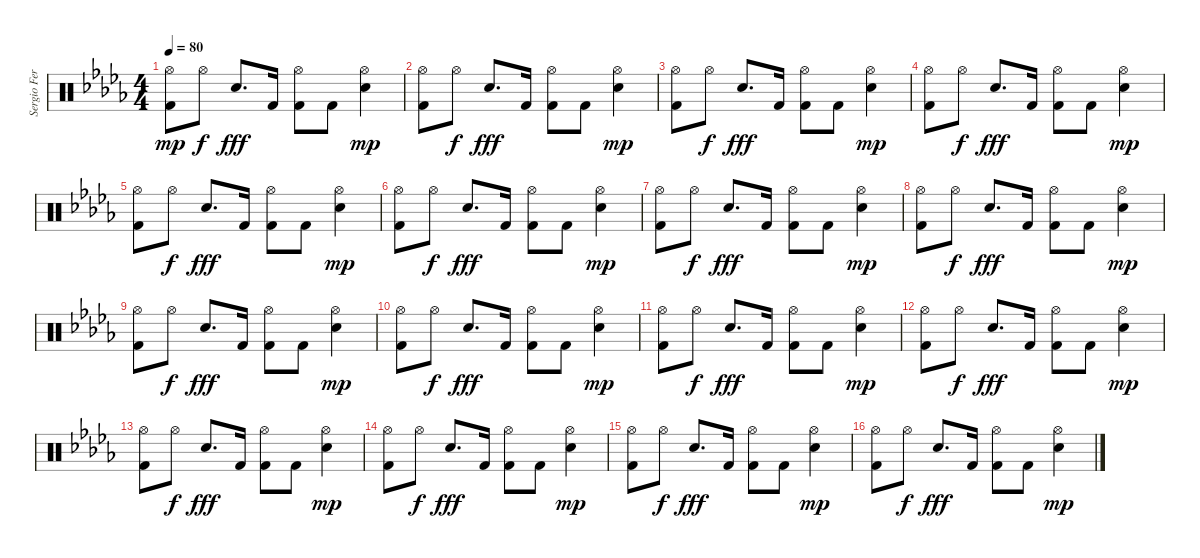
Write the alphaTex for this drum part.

\track ("Sergio Fernandez \"Taz\"" "Sergio Fer") {instrument percussion}
\staff {score}
\articulation defaults
\ts (4 4)
\tempo 80
\clef neutral
\ks bbminor
("Kick (hit) 2" "Hi-Hat (open)").8{dy mp} "Hi-Hat (open)".8{dy f} "Snare (hit) 2".8{d dy fff} "Kick (hit) 2".16 ("Hi-Hat (open)" "Kick (hit) 2").8 "Kick (hit) 2".8 ("Snare (hit) 2" "Hi-Hat (open)").4{dy mp} |
("Kick (hit) 2" "Hi-Hat (open)").8 "Hi-Hat (open)".8{dy f} "Snare (hit) 2".8{d dy fff} "Kick (hit) 2".16 ("Hi-Hat (open)" "Kick (hit) 2").8 "Kick (hit) 2".8 ("Snare (hit) 2" "Hi-Hat (open)").4{dy mp} |
("Kick (hit) 2" "Hi-Hat (open)").8 "Hi-Hat (open)".8{dy f} "Snare (hit) 2".8{d dy fff} "Kick (hit) 2".16 ("Hi-Hat (open)" "Kick (hit) 2").8 "Kick (hit) 2".8 ("Snare (hit) 2" "Hi-Hat (open)").4{dy mp} |
("Kick (hit) 2" "Hi-Hat (open)").8 "Hi-Hat (open)".8{dy f} "Snare (hit) 2".8{d dy fff} "Kick (hit) 2".16 ("Hi-Hat (open)" "Kick (hit) 2").8 "Kick (hit) 2".8 ("Snare (hit) 2" "Hi-Hat (open)").4{dy mp} |
("Kick (hit) 2" "Hi-Hat (open)").8 "Hi-Hat (open)".8{dy f} "Snare (hit) 2".8{d dy fff} "Kick (hit) 2".16 ("Hi-Hat (open)" "Kick (hit) 2").8 "Kick (hit) 2".8 ("Snare (hit) 2" "Hi-Hat (open)").4{dy mp} |
("Kick (hit) 2" "Hi-Hat (open)").8 "Hi-Hat (open)".8{dy f} "Snare (hit) 2".8{d dy fff} "Kick (hit) 2".16 ("Hi-Hat (open)" "Kick (hit) 2").8 "Kick (hit) 2".8 ("Snare (hit) 2" "Hi-Hat (open)").4{dy mp} |
("Kick (hit) 2" "Hi-Hat (open)").8 "Hi-Hat (open)".8{dy f} "Snare (hit) 2".8{d dy fff} "Kick (hit) 2".16 ("Hi-Hat (open)" "Kick (hit) 2").8 "Kick (hit) 2".8 ("Snare (hit) 2" "Hi-Hat (open)").4{dy mp} |
("Kick (hit) 2" "Hi-Hat (open)").8 "Hi-Hat (open)".8{dy f} "Snare (hit) 2".8{d dy fff} "Kick (hit) 2".16 ("Hi-Hat (open)" "Kick (hit) 2").8 "Kick (hit) 2".8 ("Snare (hit) 2" "Hi-Hat (open)").4{dy mp} |
("Kick (hit) 2" "Hi-Hat (open)").8 "Hi-Hat (open)".8{dy f} "Snare (hit) 2".8{d dy fff} "Kick (hit) 2".16 ("Hi-Hat (open)" "Kick (hit) 2").8 "Kick (hit) 2".8 ("Snare (hit) 2" "Hi-Hat (open)").4{dy mp} |
("Kick (hit) 2" "Hi-Hat (open)").8 "Hi-Hat (open)".8{dy f} "Snare (hit) 2".8{d dy fff} "Kick (hit) 2".16 ("Hi-Hat (open)" "Kick (hit) 2").8 "Kick (hit) 2".8 ("Snare (hit) 2" "Hi-Hat (open)").4{dy mp} |
("Kick (hit) 2" "Hi-Hat (open)").8 "Hi-Hat (open)".8{dy f} "Snare (hit) 2".8{d dy fff} "Kick (hit) 2".16 ("Hi-Hat (open)" "Kick (hit) 2").8 "Kick (hit) 2".8 ("Snare (hit) 2" "Hi-Hat (open)").4{dy mp} |
("Kick (hit) 2" "Hi-Hat (open)").8 "Hi-Hat (open)".8{dy f} "Snare (hit) 2".8{d dy fff} "Kick (hit) 2".16 ("Hi-Hat (open)" "Kick (hit) 2").8 "Kick (hit) 2".8 ("Snare (hit) 2" "Hi-Hat (open)").4{dy mp} |
("Kick (hit) 2" "Hi-Hat (open)").8 "Hi-Hat (open)".8{dy f} "Snare (hit) 2".8{d dy fff} "Kick (hit) 2".16 ("Hi-Hat (open)" "Kick (hit) 2").8 "Kick (hit) 2".8 ("Snare (hit) 2" "Hi-Hat (open)").4{dy mp} |
("Kick (hit) 2" "Hi-Hat (open)").8 "Hi-Hat (open)".8{dy f} "Snare (hit) 2".8{d dy fff} "Kick (hit) 2".16 ("Hi-Hat (open)" "Kick (hit) 2").8 "Kick (hit) 2".8 ("Snare (hit) 2" "Hi-Hat (open)").4{dy mp} |
("Kick (hit) 2" "Hi-Hat (open)").8 "Hi-Hat (open)".8{dy f} "Snare (hit) 2".8{d dy fff} "Kick (hit) 2".16 ("Hi-Hat (open)" "Kick (hit) 2").8 "Kick (hit) 2".8 ("Snare (hit) 2" "Hi-Hat (open)").4{dy mp} |
("Kick (hit) 2" "Hi-Hat (open)").8 "Hi-Hat (open)".8{dy f} "Snare (hit) 2".8{d dy fff} "Kick (hit) 2".16 ("Hi-Hat (open)" "Kick (hit) 2").8 "Kick (hit) 2".8 ("Snare (hit) 2" "Hi-Hat (open)").4{dy mp}
